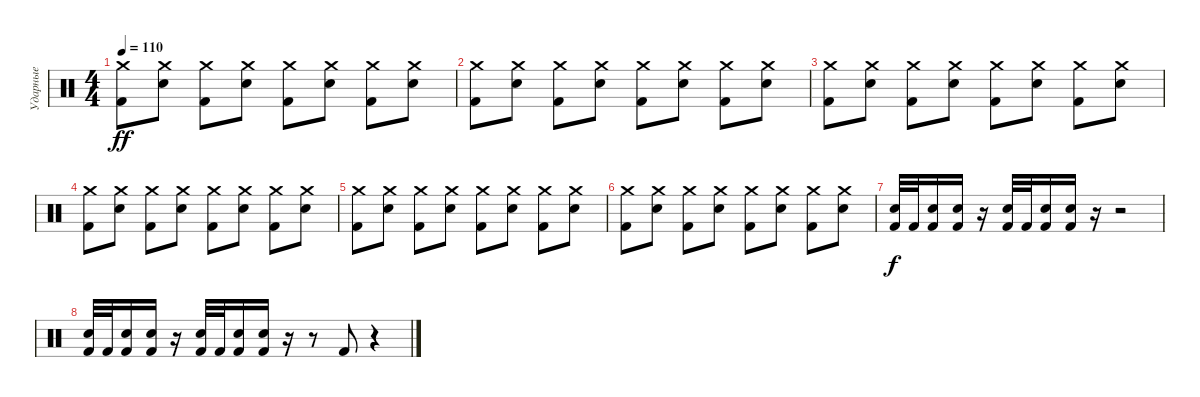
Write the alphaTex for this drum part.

\track ("Ударные" "Ударные") {instrument percussion}
\staff {score}
\articulation defaults
\ts (4 4)
\tempo 110
\clef neutral
\ks c
("Crash medium (hit)" "Kick (hit) 2").8{dy ff} ("Crash medium (hit)" "Electric Snare (hit)").8 ("Crash medium (hit)" "Kick (hit) 2").8 ("Crash medium (hit)" "Electric Snare (hit)").8 ("Crash medium (hit)" "Kick (hit) 2").8 ("Crash medium (hit)" "Electric Snare (hit)").8 ("Crash medium (hit)" "Kick (hit) 2").8 ("Crash medium (hit)" "Electric Snare (hit)").8 |
("Crash medium (hit)" "Kick (hit) 2").8 ("Crash medium (hit)" "Electric Snare (hit)").8 ("Crash medium (hit)" "Kick (hit) 2").8 ("Crash medium (hit)" "Electric Snare (hit)").8 ("Crash medium (hit)" "Kick (hit) 2").8 ("Crash medium (hit)" "Electric Snare (hit)").8 ("Crash medium (hit)" "Kick (hit) 2").8 ("Crash medium (hit)" "Electric Snare (hit)").8 |
("Crash medium (hit)" "Kick (hit) 2").8 ("Crash medium (hit)" "Electric Snare (hit)").8 ("Crash medium (hit)" "Kick (hit) 2").8 ("Crash medium (hit)" "Electric Snare (hit)").8 ("Crash medium (hit)" "Kick (hit) 2").8 ("Crash medium (hit)" "Electric Snare (hit)").8 ("Crash medium (hit)" "Kick (hit) 2").8 ("Crash medium (hit)" "Electric Snare (hit)").8 |
("Crash medium (hit)" "Kick (hit) 2").8 ("Crash medium (hit)" "Electric Snare (hit)").8 ("Crash medium (hit)" "Kick (hit) 2").8 ("Crash medium (hit)" "Electric Snare (hit)").8 ("Crash medium (hit)" "Kick (hit) 2").8 ("Crash medium (hit)" "Electric Snare (hit)").8 ("Crash medium (hit)" "Kick (hit) 2").8 ("Crash medium (hit)" "Electric Snare (hit)").8 |
("Crash medium (hit)" "Kick (hit) 2").8 ("Crash medium (hit)" "Electric Snare (hit)").8 ("Crash medium (hit)" "Kick (hit) 2").8 ("Crash medium (hit)" "Electric Snare (hit)").8 ("Crash medium (hit)" "Kick (hit) 2").8 ("Crash medium (hit)" "Electric Snare (hit)").8 ("Crash medium (hit)" "Kick (hit) 2").8 ("Crash medium (hit)" "Electric Snare (hit)").8 |
("Crash medium (hit)" "Kick (hit) 2").8 ("Crash medium (hit)" "Electric Snare (hit)").8 ("Crash medium (hit)" "Kick (hit) 2").8 ("Crash medium (hit)" "Electric Snare (hit)").8 ("Crash medium (hit)" "Kick (hit) 2").8 ("Crash medium (hit)" "Electric Snare (hit)").8 ("Crash medium (hit)" "Kick (hit) 2").8 ("Crash medium (hit)" "Electric Snare (hit)").8 |
("Electric Snare (hit)" "Kick (hit) 2").32{dy f} "Kick (hit) 2".32 ("Electric Snare (hit)" "Kick (hit) 2").16 ("Electric Snare (hit)" "Kick (hit) 2").16 r.16 ("Electric Snare (hit)" "Kick (hit) 2").32 "Kick (hit) 2".32 ("Electric Snare (hit)" "Kick (hit) 2").16 ("Electric Snare (hit)" "Kick (hit) 2").16 r.16 r.2 |
("Electric Snare (hit)" "Kick (hit) 2").32 "Kick (hit) 2".32 ("Electric Snare (hit)" "Kick (hit) 2").16 ("Electric Snare (hit)" "Kick (hit) 2").16 r.16 ("Electric Snare (hit)" "Kick (hit) 2").32 "Kick (hit) 2".32 ("Electric Snare (hit)" "Kick (hit) 2").16 ("Electric Snare (hit)" "Kick (hit) 2").16 r.16 r.8 "Kick (hit) 2".8 r.4
